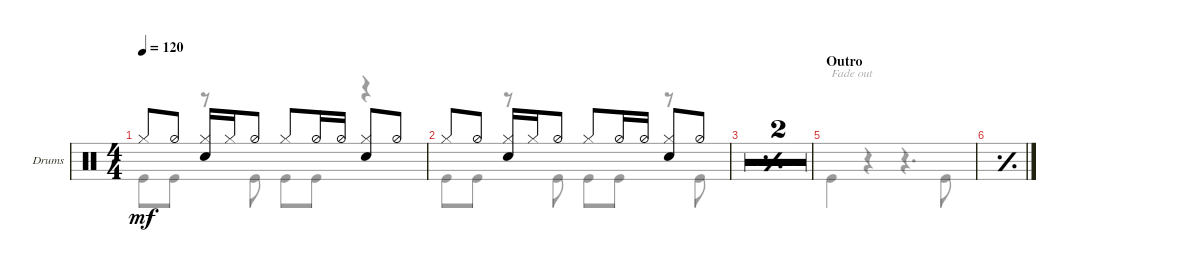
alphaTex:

\defaultSystemsLayout 4
\bracketExtendMode groupsimilarinstruments
\firstSystemTrackNameOrientation horizontal
\otherSystemsTrackNameOrientation horizontal
\track ("Drums" "Drums") {multiBarRest instrument percussion}
\staff {score}
\articulation defaults
\voice
\ts (4 4)
\tempo 120
\clef neutral
\ks c "Hi-Hat (closed)".8{dy mf} "Hi-Hat (half)".8
("Hi-Hat (closed)" "Snare (hit) 2").16 "Hi-Hat (closed)".16 "Hi-Hat (half)".8 "Hi-Hat (closed)".8 "Hi-Hat (half)".16 "Hi-Hat (half)".16 ("Hi-Hat (closed)" "Snare (hit) 2").8 "Hi-Hat (half)".8 |
"Hi-Hat (closed)".8 "Hi-Hat (half)".8 ("Hi-Hat (closed)" "Snare (hit) 2").16 "Hi-Hat (closed)".16 "Hi-Hat (half)".8 "Hi-Hat (closed)".8 "Hi-Hat (half)".16 "Hi-Hat (half)".16 ("Hi-Hat (closed)" "Snare (hit) 2").8 "Hi-Hat (half)".8 |
\simile simple
|
\barLineRight lightlight
|
\section ("" "Outro")
\simile none
|
\simile simple
|
|
|
|
|
|
|
\simile none
|
|
\voice
\clef neutral
\ottava regular
\simile none
\ks c "Kick (hit)".8{dy mf} "Kick (hit)".8
r.8 "Kick (hit)".8 "Kick (hit)".8 "Kick (hit)".8 r.4 |
"Kick (hit)".8 "Kick (hit)".8 r.8 "Kick (hit)".8 "Kick (hit)".8 "Kick (hit)".8 r.8 "Kick (hit)".8 |
\simile simple
|
\barLineRight lightlight
|
\simile none "Kick (hit)".4{txt "Fade out"}
r.4 r.4{d} "Kick (hit)".8 |
\simile simple
|
|
|
|
|
|
|
\simile none
|
|
